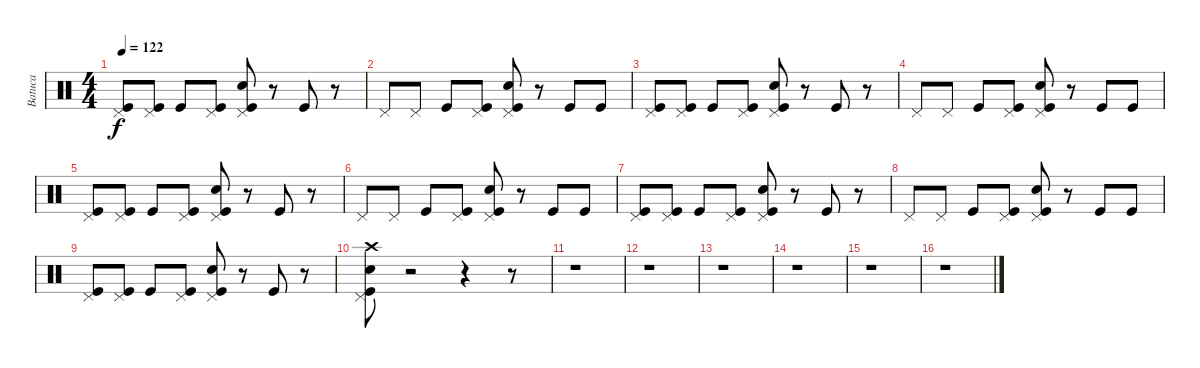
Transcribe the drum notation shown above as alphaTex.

\track ("Batuca" "Batuca") {instrument percussion}
\staff {score}
\articulation defaults
\ts (4 4)
\tempo 122
\clef neutral
\ks c
("Kick (hit)" "Pedal Hi-Hat (hit)").8{dy f} ("Kick (hit)" "Pedal Hi-Hat (hit)").8 "Kick (hit)".8 ("Kick (hit)" "Pedal Hi-Hat (hit)").8 ("Kick (hit)" "Electric Snare (hit)" "Pedal Hi-Hat (hit)").8 r.8 "Kick (hit)".8 r.8 |
"Pedal Hi-Hat (hit)".8 "Pedal Hi-Hat (hit)".8 "Kick (hit)".8 ("Kick (hit)" "Pedal Hi-Hat (hit)").8 ("Kick (hit)" "Electric Snare (hit)" "Pedal Hi-Hat (hit)").8 r.8 "Kick (hit)".8 "Kick (hit)".8 |
("Kick (hit)" "Pedal Hi-Hat (hit)").8 ("Kick (hit)" "Pedal Hi-Hat (hit)").8 "Kick (hit)".8 ("Kick (hit)" "Pedal Hi-Hat (hit)").8 ("Kick (hit)" "Electric Snare (hit)" "Pedal Hi-Hat (hit)").8 r.8 "Kick (hit)".8 r.8 |
"Pedal Hi-Hat (hit)".8 "Pedal Hi-Hat (hit)".8 "Kick (hit)".8 ("Kick (hit)" "Pedal Hi-Hat (hit)").8 ("Kick (hit)" "Electric Snare (hit)" "Pedal Hi-Hat (hit)").8 r.8 "Kick (hit)".8 "Kick (hit)".8 |
("Kick (hit)" "Pedal Hi-Hat (hit)").8 ("Kick (hit)" "Pedal Hi-Hat (hit)").8 "Kick (hit)".8 ("Kick (hit)" "Pedal Hi-Hat (hit)").8 ("Kick (hit)" "Electric Snare (hit)" "Pedal Hi-Hat (hit)").8 r.8 "Kick (hit)".8 r.8 |
"Pedal Hi-Hat (hit)".8 "Pedal Hi-Hat (hit)".8 "Kick (hit)".8 ("Kick (hit)" "Pedal Hi-Hat (hit)").8 ("Kick (hit)" "Electric Snare (hit)" "Pedal Hi-Hat (hit)").8 r.8 "Kick (hit)".8 "Kick (hit)".8 |
("Kick (hit)" "Pedal Hi-Hat (hit)").8 ("Kick (hit)" "Pedal Hi-Hat (hit)").8 "Kick (hit)".8 ("Kick (hit)" "Pedal Hi-Hat (hit)").8 ("Kick (hit)" "Electric Snare (hit)" "Pedal Hi-Hat (hit)").8 r.8 "Kick (hit)".8 r.8 |
"Pedal Hi-Hat (hit)".8 "Pedal Hi-Hat (hit)".8 "Kick (hit)".8 ("Kick (hit)" "Pedal Hi-Hat (hit)").8 ("Kick (hit)" "Electric Snare (hit)" "Pedal Hi-Hat (hit)").8 r.8 "Kick (hit)".8 "Kick (hit)".8 |
("Kick (hit)" "Pedal Hi-Hat (hit)").8 ("Kick (hit)" "Pedal Hi-Hat (hit)").8 "Kick (hit)".8 ("Kick (hit)" "Pedal Hi-Hat (hit)").8 ("Kick (hit)" "Electric Snare (hit)" "Pedal Hi-Hat (hit)").8 r.8 "Kick (hit)".8 r.8 |
("Electric Snare (hit)" "Kick (hit)" "Crash high (hit)" "Pedal Hi-Hat (hit)").8 r.2 r.4 r.8 |
r.1 |
r.1 |
r.1 |
r.1 |
r.1 |
r.1
